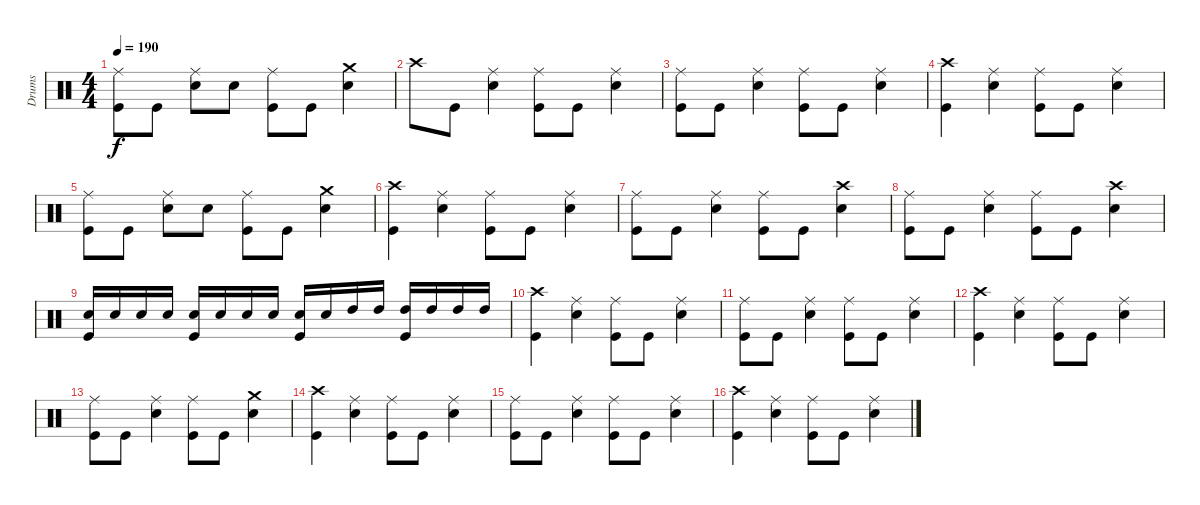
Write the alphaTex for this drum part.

\track ("Drums" "Drums") {instrument percussion}
\staff {score}
\articulation defaults
\ts (4 4)
\tempo 190
\clef neutral
\ks c
("Kick (hit)" "Ride (middle)").8{dy f} "Kick (hit)".8 ("Electric Snare (hit)" "Ride (middle)").8 "Electric Snare (hit)".8 ("Kick (hit)" "Ride (middle)").8 "Kick (hit)".8 ("Electric Snare (hit)" "Crash medium (hit)").4 |
"Crash high (hit)".8 "Kick (hit)".8 ("Electric Snare (hit)" "Ride (middle)").4 ("Kick (hit)" "Ride (middle)").8 "Kick (hit)".8 ("Electric Snare (hit)" "Ride (middle)").4 |
("Kick (hit)" "Ride (middle)").8 "Kick (hit)".8 ("Electric Snare (hit)" "Ride (middle)").4 ("Kick (hit)" "Ride (middle)").8 "Kick (hit)".8 ("Electric Snare (hit)" "Ride (middle)").4 |
("Crash high (hit)" "Kick (hit)").4 ("Electric Snare (hit)" "Ride (middle)").4 ("Kick (hit)" "Ride (middle)").8 "Kick (hit)".8 ("Electric Snare (hit)" "Ride (middle)").4 |
("Kick (hit)" "Ride (middle)").8 "Kick (hit)".8 ("Electric Snare (hit)" "Ride (middle)").8 "Electric Snare (hit)".8 ("Kick (hit)" "Ride (middle)").8 "Kick (hit)".8 ("Electric Snare (hit)" "Crash medium (hit)").4 |
("Kick (hit)" "Crash high (hit)").4 ("Electric Snare (hit)" "Ride (middle)").4 ("Kick (hit)" "Ride (middle)").8 "Kick (hit)".8 ("Electric Snare (hit)" "Ride (middle)").4 |
("Kick (hit)" "Ride (middle)").8 "Kick (hit)".8 ("Electric Snare (hit)" "Ride (middle)").4 ("Kick (hit)" "Ride (middle)").8 "Kick (hit)".8 ("Electric Snare (hit)" "Crash high (hit)").4 |
("Kick (hit)" "Ride (middle)").8 "Kick (hit)".8 ("Electric Snare (hit)" "Ride (middle)").4 ("Kick (hit)" "Ride (middle)").8 "Kick (hit)".8 ("Electric Snare (hit)" "Crash high (hit)").4 |
("Kick (hit)" "Electric Snare (hit)").16 "Electric Snare (hit)".16 "Electric Snare (hit)".16 "Electric Snare (hit)".16 ("Kick (hit)" "Electric Snare (hit)").16 "Electric Snare (hit)".16 "Electric Snare (hit)".16 "Electric Snare (hit)".16 ("Kick (hit)" "Electric Snare (hit)").16 "Electric Snare (hit)".16 "High Tom (hit)".16 "High Tom (hit)".16 ("Kick (hit)" "High Tom (hit)").16 "High Tom (hit)".16 "High Tom (hit)".16 "High Tom (hit)".16 |
("Crash high (hit)" "Kick (hit)").4 ("Electric Snare (hit)" "Ride (middle)").4 ("Kick (hit)" "Ride (middle)").8 "Kick (hit)".8 ("Electric Snare (hit)" "Ride (middle)").4 |
("Kick (hit)" "Ride (middle)").8 "Kick (hit)".8 ("Electric Snare (hit)" "Ride (middle)").4 ("Kick (hit)" "Ride (middle)").8 "Kick (hit)".8 ("Electric Snare (hit)" "Ride (middle)").4 |
("Crash high (hit)" "Kick (hit)").4 ("Electric Snare (hit)" "Ride (middle)").4 ("Kick (hit)" "Ride (middle)").8 "Kick (hit)".8 ("Electric Snare (hit)" "Ride (middle)").4 |
("Kick (hit)" "Ride (middle)").8 "Kick (hit)".8 ("Electric Snare (hit)" "Ride (middle)").4 ("Kick (hit)" "Ride (middle)").8 "Kick (hit)".8 ("Electric Snare (hit)" "Crash medium (hit)").4 |
("Crash high (hit)" "Kick (hit)").4 ("Electric Snare (hit)" "Ride (middle)").4 ("Kick (hit)" "Ride (middle)").8 "Kick (hit)".8 ("Electric Snare (hit)" "Ride (middle)").4 |
("Kick (hit)" "Ride (middle)").8 "Kick (hit)".8 ("Electric Snare (hit)" "Ride (middle)").4 ("Kick (hit)" "Ride (middle)").8 "Kick (hit)".8 ("Electric Snare (hit)" "Ride (middle)").4 |
("Crash high (hit)" "Kick (hit)").4 ("Electric Snare (hit)" "Ride (middle)").4 ("Kick (hit)" "Ride (middle)").8 "Kick (hit)".8 ("Electric Snare (hit)" "Ride (middle)").4
